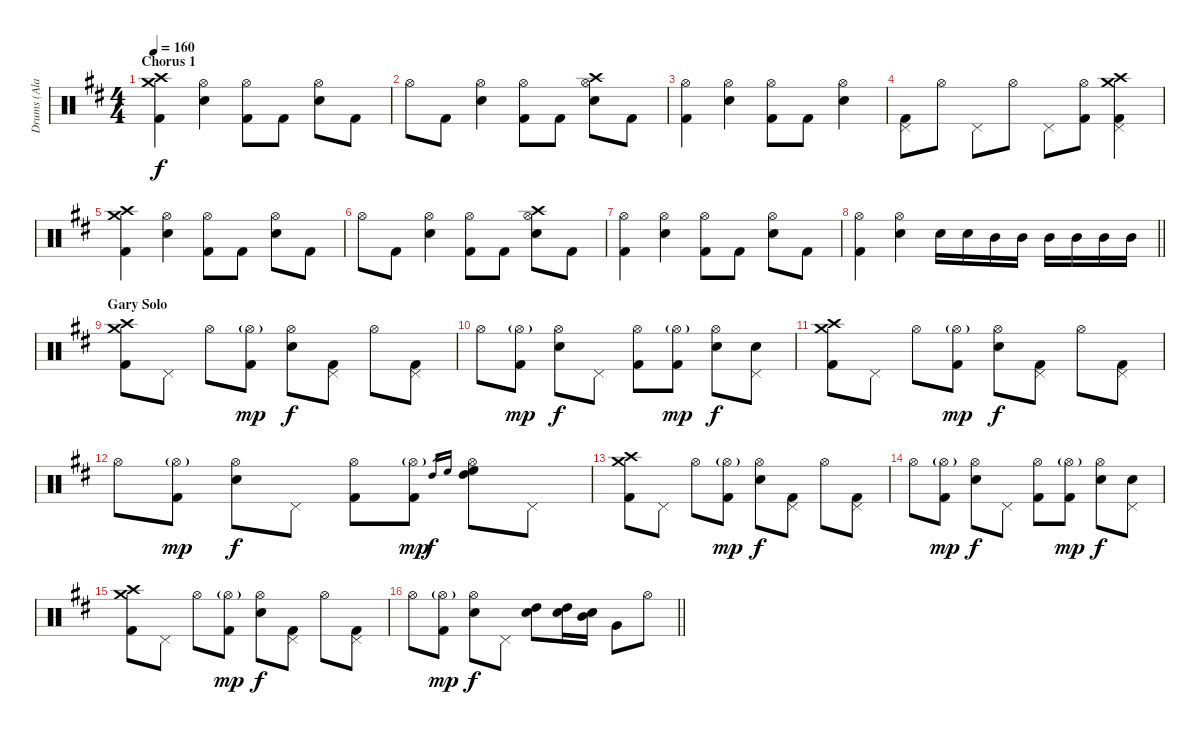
\track ("Drums (Ala Pyle)" "Drums (Ala") {instrument percussion}
\staff {score}
\articulation defaults
\ts (4 4)
\section ("" "Chorus 1")
\tempo 160
\clef neutral
\ks d
("Crash medium (hit)" "Crash high (hit)" "Kick (hit) 2").4{dy f} ("Snare (hit) 2" "Hi-Hat (open)").4 ("Hi-Hat (open)" "Kick (hit) 2").8 "Kick (hit) 2".8 ("Snare (hit) 2" "Hi-Hat (open)").8 "Kick (hit) 2".8 |
"Hi-Hat (open)".8 "Kick (hit) 2".8 ("Snare (hit) 2" "Hi-Hat (open)").4 ("Hi-Hat (open)" "Kick (hit) 2").8 "Kick (hit) 2".8 ("Crash high (hit)" "Snare (hit) 2" "Hi-Hat (open)").8 "Kick (hit) 2".8 |
("Hi-Hat (open)" "Kick (hit) 2").4 ("Snare (hit) 2" "Hi-Hat (open)").4 ("Hi-Hat (open)" "Kick (hit) 2").8 "Kick (hit) 2".8 ("Snare (hit) 2" "Hi-Hat (open)").4 |
("Pedal Hi-Hat (hit)" "Kick (hit) 2").8 "Hi-Hat (open)".8 "Pedal Hi-Hat (hit)".8 "Hi-Hat (open)".8 "Pedal Hi-Hat (hit)".8 ("Hi-Hat (open)" "Kick (hit) 2").8 ("Crash high (hit)" "Crash medium (hit)" "Pedal Hi-Hat (hit)" "Kick (hit) 2").4 |
("Crash medium (hit)" "Crash high (hit)" "Kick (hit) 2").4 ("Snare (hit) 2" "Hi-Hat (open)").4 ("Hi-Hat (open)" "Kick (hit) 2").8 "Kick (hit) 2".8 ("Snare (hit) 2" "Hi-Hat (open)").8 "Kick (hit) 2".8 |
"Hi-Hat (open)".8 "Kick (hit) 2".8 ("Snare (hit) 2" "Hi-Hat (open)").4 ("Hi-Hat (open)" "Kick (hit) 2").8 "Kick (hit) 2".8 ("Crash high (hit)" "Snare (hit) 2" "Hi-Hat (open)").8 "Kick (hit) 2".8 |
("Hi-Hat (open)" "Kick (hit) 2").4 ("Snare (hit) 2" "Hi-Hat (open)").4 ("Hi-Hat (open)" "Kick (hit) 2").8 "Kick (hit) 2".8 ("Snare (hit) 2" "Hi-Hat (open)").8 "Kick (hit) 2".8 |
\barLineRight lightlight
("Hi-Hat (open)" "Kick (hit) 2").4 ("Snare (hit) 2" "Hi-Hat (open)").4 "Snare (hit) 2".16 "Snare (hit) 2".16 "Mid Tom (hit)".16 "Mid Tom (hit)".16 "Mid Tom (hit)".16 "Mid Tom (hit)".16 "Mid Tom (hit)".16 "Mid Tom (hit)".16 |
\section ("" "Gary Solo")
("Crash medium (hit)" "Crash high (hit)" "Kick (hit) 2").8 "Pedal Hi-Hat (hit)".8 "Hi-Hat (open)".8 ("Hi-Hat (open)"{g} "Kick (hit) 2").8{dy mp} ("Snare (hit) 2" "Hi-Hat (open)").8{dy f} ("Pedal Hi-Hat (hit)" "Kick (hit) 2").8 "Hi-Hat (open)".8 ("Pedal Hi-Hat (hit)" "Kick (hit) 2").8 |
"Hi-Hat (open)".8 ("Hi-Hat (open)"{g} "Kick (hit) 2").8{dy mp} ("Snare (hit) 2" "Hi-Hat (open)").8{dy f} "Pedal Hi-Hat (hit)".8 ("Hi-Hat (open)" "Kick (hit) 2").8 ("Hi-Hat (open)"{g} "Kick (hit) 2").8{dy mp} ("Snare (hit) 2" "Hi-Hat (open)").8{dy f} ("Snare (hit) 2" "Pedal Hi-Hat (hit)").8 |
("Crash medium (hit)" "Crash high (hit)" "Kick (hit) 2").8 "Pedal Hi-Hat (hit)".8 "Hi-Hat (open)".8 ("Hi-Hat (open)"{g} "Kick (hit) 2").8{dy mp} ("Snare (hit) 2" "Hi-Hat (open)").8{dy f} ("Pedal Hi-Hat (hit)" "Kick (hit) 2").8 "Hi-Hat (open)".8 ("Pedal Hi-Hat (hit)" "Kick (hit) 2").8 |
"Hi-Hat (open)".8 ("Hi-Hat (open)"{g} "Kick (hit) 2").8{dy mp} ("Snare (hit) 2" "Hi-Hat (open)").8{dy f} "Pedal Hi-Hat (hit)".8 ("Hi-Hat (open)" "Kick (hit) 2").8 ("Hi-Hat (open)"{g} "Kick (hit) 2").8{dy mp} "High Tom (hit)".16{gr dy f} "High Floor Tom (hit)".16{gr} ("High Tom (hit)" "High Floor Tom (hit)" "Hi-Hat (open)").8 "Pedal Hi-Hat (hit)".8 |
("Crash medium (hit)" "Crash high (hit)" "Kick (hit) 2").8 "Pedal Hi-Hat (hit)".8 "Hi-Hat (open)".8 ("Hi-Hat (open)"{g} "Kick (hit) 2").8{dy mp} ("Snare (hit) 2" "Hi-Hat (open)").8{dy f} ("Pedal Hi-Hat (hit)" "Kick (hit) 2").8 "Hi-Hat (open)".8 ("Pedal Hi-Hat (hit)" "Kick (hit) 2").8 |
"Hi-Hat (open)".8 ("Hi-Hat (open)"{g} "Kick (hit) 2").8{dy mp} ("Snare (hit) 2" "Hi-Hat (open)").8{dy f} "Pedal Hi-Hat (hit)".8 ("Hi-Hat (open)" "Kick (hit) 2").8 ("Hi-Hat (open)"{g} "Kick (hit) 2").8{dy mp} ("Snare (hit) 2" "Hi-Hat (open)").8{dy f} ("Snare (hit) 2" "Pedal Hi-Hat (hit)").8 |
("Crash medium (hit)" "Crash high (hit)" "Kick (hit) 2").8 "Pedal Hi-Hat (hit)".8 "Hi-Hat (open)".8 ("Hi-Hat (open)"{g} "Kick (hit) 2").8{dy mp} ("Snare (hit) 2" "Hi-Hat (open)").8{dy f} ("Pedal Hi-Hat (hit)" "Kick (hit) 2").8 "Hi-Hat (open)".8 ("Pedal Hi-Hat (hit)" "Kick (hit) 2").8 |
\barLineRight lightlight "Hi-Hat (open)".8
("Hi-Hat (open)"{g} "Kick (hit) 2").8{dy mp} ("Snare (hit) 2" "Hi-Hat (open)").8{dy f} "Pedal Hi-Hat (hit)".8 ("Snare (hit) 2" "High Tom (hit)").8 ("Snare (hit) 2" "High Tom (hit)").16 ("Snare (hit) 2" "Mid Tom (hit)").16 "Very Low Tom (hit)".8 "Hi-Hat (open)".8
